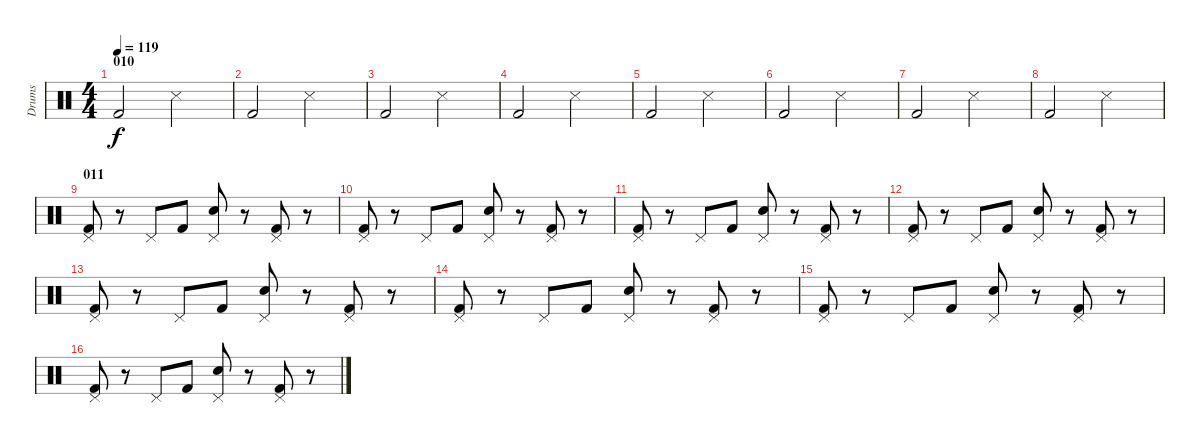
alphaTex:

\track ("Drums" "Drums") {instrument percussion}
\staff {score}
\articulation defaults
\ts (4 4)
\section ("" "010")
\tempo 119
\clef neutral
\ks c "Kick (hit) 2".2{dy f} "Snare (side stick) 3".2
|
"Kick (hit) 2".2 "Snare (side stick) 3".2 |
"Kick (hit) 2".2 "Snare (side stick) 3".2 |
"Kick (hit) 2".2 "Snare (side stick) 3".2 |
"Kick (hit) 2".2 "Snare (side stick) 3".2 |
"Kick (hit) 2".2 "Snare (side stick) 3".2 |
"Kick (hit) 2".2 "Snare (side stick) 3".2 |
"Kick (hit) 2".2 "Snare (side stick) 3".2 |
\section ("" "011")
("Kick (hit) 2" "Pedal Hi-Hat (hit)").8 r.8 "Pedal Hi-Hat (hit)".8 "Kick (hit) 2".8 ("Electric Snare (hit)" "Pedal Hi-Hat (hit)").8 r.8 ("Kick (hit) 2" "Pedal Hi-Hat (hit)").8 r.8 |
("Kick (hit) 2" "Pedal Hi-Hat (hit)").8 r.8 "Pedal Hi-Hat (hit)".8 "Kick (hit) 2".8 ("Electric Snare (hit)" "Pedal Hi-Hat (hit)").8 r.8 ("Kick (hit) 2" "Pedal Hi-Hat (hit)").8 r.8 |
("Kick (hit) 2" "Pedal Hi-Hat (hit)").8 r.8 "Pedal Hi-Hat (hit)".8 "Kick (hit) 2".8 ("Electric Snare (hit)" "Pedal Hi-Hat (hit)").8 r.8 ("Kick (hit) 2" "Pedal Hi-Hat (hit)").8 r.8 |
("Kick (hit) 2" "Pedal Hi-Hat (hit)").8 r.8 "Pedal Hi-Hat (hit)".8 "Kick (hit) 2".8 ("Electric Snare (hit)" "Pedal Hi-Hat (hit)").8 r.8 ("Kick (hit) 2" "Pedal Hi-Hat (hit)").8 r.8 |
("Kick (hit) 2" "Pedal Hi-Hat (hit)").8 r.8 "Pedal Hi-Hat (hit)".8 "Kick (hit) 2".8 ("Electric Snare (hit)" "Pedal Hi-Hat (hit)").8 r.8 ("Kick (hit) 2" "Pedal Hi-Hat (hit)").8 r.8 |
("Kick (hit) 2" "Pedal Hi-Hat (hit)").8 r.8 "Pedal Hi-Hat (hit)".8 "Kick (hit) 2".8 ("Electric Snare (hit)" "Pedal Hi-Hat (hit)").8 r.8 ("Kick (hit) 2" "Pedal Hi-Hat (hit)").8 r.8 |
("Kick (hit) 2" "Pedal Hi-Hat (hit)").8 r.8 "Pedal Hi-Hat (hit)".8 "Kick (hit) 2".8 ("Electric Snare (hit)" "Pedal Hi-Hat (hit)").8 r.8 ("Kick (hit) 2" "Pedal Hi-Hat (hit)").8 r.8 |
("Kick (hit) 2" "Pedal Hi-Hat (hit)").8 r.8 "Pedal Hi-Hat (hit)".8 "Kick (hit) 2".8 ("Electric Snare (hit)" "Pedal Hi-Hat (hit)").8 r.8 ("Kick (hit) 2" "Pedal Hi-Hat (hit)").8 r.8
